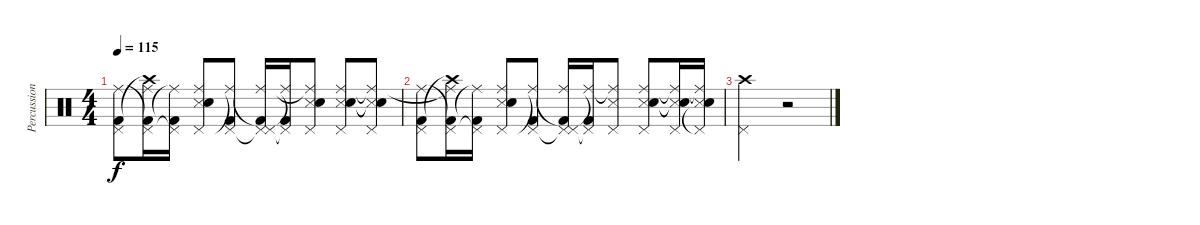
\track ("Percussioni" "Percussion") {instrument percussion}
\staff {score}
\articulation defaults
\ts (4 4)
\tempo 115
\clef neutral
\ks c
("Pedal Hi-Hat (hit)" "Kick (hit) 2" "Ride (middle)").8{dy f} ("Pedal Hi-Hat (hit)" "Crash high (hit)"{t} "Kick (hit) 2"{t} "Ride (middle)"{t}).16 ("Pedal Hi-Hat (hit)"{t} "Kick (hit) 2" "Ride (middle)"{t}).16 ("Snare (side stick) 3" "Electric Snare (hit)" "Pedal Hi-Hat (hit)" "Ride (middle)").8 ("Pedal Hi-Hat (hit)" "Kick (hit) 2" "Ride (middle)"{t}).8 ("Pedal Hi-Hat (hit)"{t} "Pedal Hi-Hat (hit)" "Kick (hit) 2"{t} "Ride (middle)").16 ("Pedal Hi-Hat (hit)"{t} "Kick (hit) 2" "Ride (middle)"{t}).16 ("Snare (side stick) 3" "Pedal Hi-Hat (hit)" "Electric Snare (hit)" "Ride (middle)"{t}).8 ("Snare (side stick) 3" "Electric Snare (hit)" "Pedal Hi-Hat (hit)" "Ride (middle)").8 ("Snare (side stick) 3"{t} "Electric Snare (hit)"{t} "Pedal Hi-Hat (hit)" "Ride (middle)"{t}).8 |
("Pedal Hi-Hat (hit)" "Kick (hit) 2" "Ride (middle)").8 ("Pedal Hi-Hat (hit)" "Crash high (hit)"{t} "Kick (hit) 2"{t} "Ride (middle)"{t}).16 ("Pedal Hi-Hat (hit)"{t} "Kick (hit) 2" "Ride (middle)"{t}).16 ("Snare (side stick) 3" "Electric Snare (hit)" "Pedal Hi-Hat (hit)" "Ride (middle)").8 ("Pedal Hi-Hat (hit)" "Kick (hit) 2" "Ride (middle)"{t}).8 ("Pedal Hi-Hat (hit)"{t} "Pedal Hi-Hat (hit)" "Kick (hit) 2"{t} "Ride (middle)").16 ("Pedal Hi-Hat (hit)"{t} "Kick (hit) 2" "Ride (middle)"{t}).16 ("Snare (side stick) 3" "Pedal Hi-Hat (hit)" "Ride (middle)"{t}).8 ("Snare (side stick) 3" "Electric Snare (hit)" "Pedal Hi-Hat (hit)" "Ride (middle)").8 ("Snare (side stick) 3"{t} "Electric Snare (hit)"{t} "Pedal Hi-Hat (hit)" "Ride (middle)"{t}).16 ("Pedal Hi-Hat (hit)"{t} "Snare (side stick) 3" "Electric Snare (hit)" "Ride (middle)"{t}).16 |
("Pedal Hi-Hat (hit)" "Crash high (hit)").2 r.2
